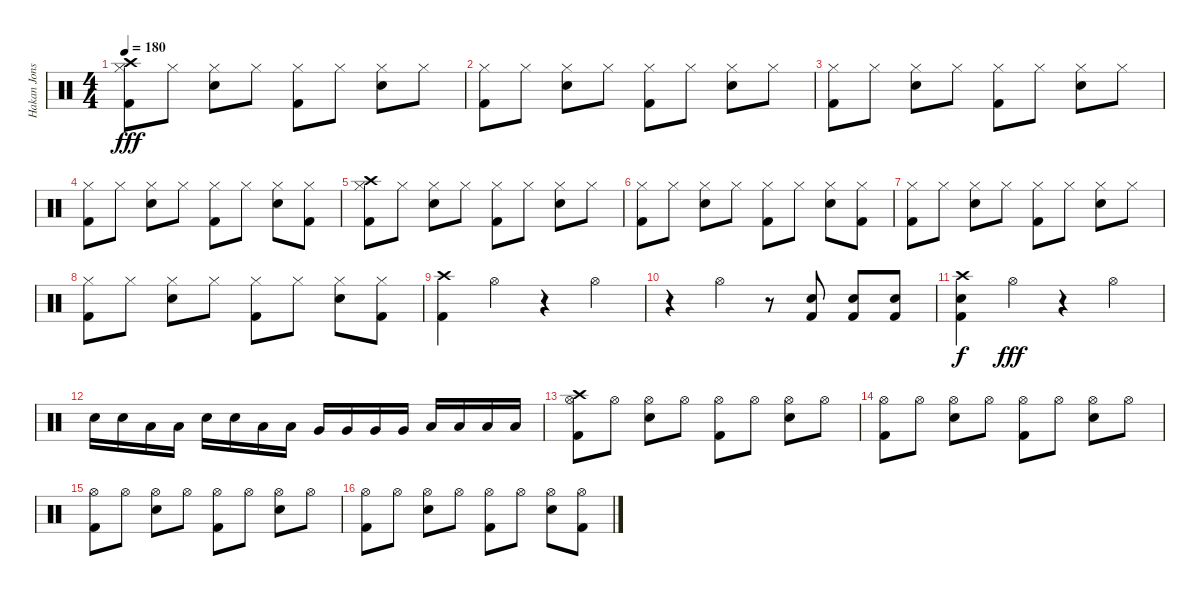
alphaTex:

\track ("Hakan Jonsson" "Hakan Jons") {instrument percussion}
\staff {score}
\articulation defaults
\ts (4 4)
\tempo 180
\clef neutral
\ks c
("Crash high (hit)" "Hi-Hat (closed)" "Kick (hit) 2").8{dy fff} "Hi-Hat (closed)".8 ("Hi-Hat (closed)" "Electric Snare (hit)").8 "Hi-Hat (closed)".8 ("Hi-Hat (closed)" "Kick (hit) 2").8 "Hi-Hat (closed)".8 ("Hi-Hat (closed)" "Electric Snare (hit)").8 "Hi-Hat (closed)".8 |
("Hi-Hat (closed)" "Kick (hit) 2").8 "Hi-Hat (closed)".8 ("Hi-Hat (closed)" "Electric Snare (hit)").8 "Hi-Hat (closed)".8 ("Hi-Hat (closed)" "Kick (hit) 2").8 "Hi-Hat (closed)".8 ("Hi-Hat (closed)" "Electric Snare (hit)").8 "Hi-Hat (closed)".8 |
("Hi-Hat (closed)" "Kick (hit) 2").8 "Hi-Hat (closed)".8 ("Hi-Hat (closed)" "Electric Snare (hit)").8 "Hi-Hat (closed)".8 ("Hi-Hat (closed)" "Kick (hit) 2").8 "Hi-Hat (closed)".8 ("Hi-Hat (closed)" "Electric Snare (hit)").8 "Hi-Hat (closed)".8 |
("Hi-Hat (closed)" "Kick (hit) 2").8 "Hi-Hat (closed)".8 ("Hi-Hat (closed)" "Electric Snare (hit)").8 "Hi-Hat (closed)".8 ("Hi-Hat (closed)" "Kick (hit) 2").8 "Hi-Hat (closed)".8 ("Hi-Hat (closed)" "Electric Snare (hit)").8 ("Hi-Hat (closed)" "Kick (hit) 2").8 |
("Crash high (hit)" "Hi-Hat (closed)" "Kick (hit) 2").8 "Hi-Hat (closed)".8 ("Hi-Hat (closed)" "Electric Snare (hit)").8 "Hi-Hat (closed)".8 ("Hi-Hat (closed)" "Kick (hit) 2").8 "Hi-Hat (closed)".8 ("Hi-Hat (closed)" "Electric Snare (hit)").8 "Hi-Hat (closed)".8 |
("Hi-Hat (closed)" "Kick (hit) 2").8 "Hi-Hat (closed)".8 ("Hi-Hat (closed)" "Electric Snare (hit)").8 "Hi-Hat (closed)".8 ("Hi-Hat (closed)" "Kick (hit) 2").8 "Hi-Hat (closed)".8 ("Hi-Hat (closed)" "Electric Snare (hit)").8 ("Hi-Hat (closed)" "Kick (hit) 2").8 |
("Hi-Hat (closed)" "Kick (hit) 2").8 "Hi-Hat (closed)".8 ("Hi-Hat (closed)" "Electric Snare (hit)").8 "Hi-Hat (closed)".8 ("Hi-Hat (closed)" "Kick (hit) 2").8 "Hi-Hat (closed)".8 ("Hi-Hat (closed)" "Electric Snare (hit)").8 "Hi-Hat (closed)".8 |
("Hi-Hat (closed)" "Kick (hit) 2").8 "Hi-Hat (closed)".8 ("Hi-Hat (closed)" "Electric Snare (hit)").8 "Hi-Hat (closed)".8 ("Hi-Hat (closed)" "Kick (hit) 2").8 "Hi-Hat (closed)".8 ("Hi-Hat (closed)" "Electric Snare (hit)").8 ("Hi-Hat (closed)" "Kick (hit) 2").8 |
("Crash high (hit)" "Kick (hit) 2").4 "Hi-Hat (open)".4 r.4 "Hi-Hat (open)".4 |
r.4 "Hi-Hat (open)".4 r.8 ("Electric Snare (hit)" "Kick (hit) 2").8 ("Electric Snare (hit)" "Kick (hit) 2").8 ("Electric Snare (hit)" "Kick (hit) 2").8 |
("Crash high (hit)" "Electric Snare (hit)" "Kick (hit) 2").4{dy f} "Hi-Hat (open)".4{dy fff} r.4 "Hi-Hat (open)".4 |
"Electric Snare (hit)".16 "Electric Snare (hit)".16 "Low Tom (hit)".16 "Low Tom (hit)".16 "Electric Snare (hit)".16 "Electric Snare (hit)".16 "Low Tom (hit)".16 "Low Tom (hit)".16 "Very Low Tom (hit)".16 "Very Low Tom (hit)".16 "Very Low Tom (hit)".16 "Very Low Tom (hit)".16 "Low Floor Tom (hit)".16 "Low Floor Tom (hit)".16 "Low Floor Tom (hit)".16 "Low Floor Tom (hit)".16 |
("Crash high (hit)" "Hi-Hat (open)" "Kick (hit) 2").8 "Hi-Hat (open)".8 ("Hi-Hat (open)" "Electric Snare (hit)").8 "Hi-Hat (open)".8 ("Hi-Hat (open)" "Kick (hit) 2").8 "Hi-Hat (open)".8 ("Hi-Hat (open)" "Electric Snare (hit)").8 "Hi-Hat (open)".8 |
("Hi-Hat (open)" "Kick (hit) 2").8 "Hi-Hat (open)".8 ("Hi-Hat (open)" "Electric Snare (hit)").8 "Hi-Hat (open)".8 ("Hi-Hat (open)" "Kick (hit) 2").8 "Hi-Hat (open)".8 ("Hi-Hat (open)" "Electric Snare (hit)").8 "Hi-Hat (open)".8 |
("Hi-Hat (open)" "Kick (hit) 2").8 "Hi-Hat (open)".8 ("Hi-Hat (open)" "Electric Snare (hit)").8 "Hi-Hat (open)".8 ("Hi-Hat (open)" "Kick (hit) 2").8 "Hi-Hat (open)".8 ("Hi-Hat (open)" "Electric Snare (hit)").8 "Hi-Hat (open)".8 |
("Hi-Hat (open)" "Kick (hit) 2").8 "Hi-Hat (open)".8 ("Hi-Hat (open)" "Electric Snare (hit)").8 "Hi-Hat (open)".8 ("Hi-Hat (open)" "Kick (hit) 2").8 "Hi-Hat (open)".8 ("Hi-Hat (open)" "Electric Snare (hit)").8 ("Hi-Hat (open)" "Kick (hit) 2").8
